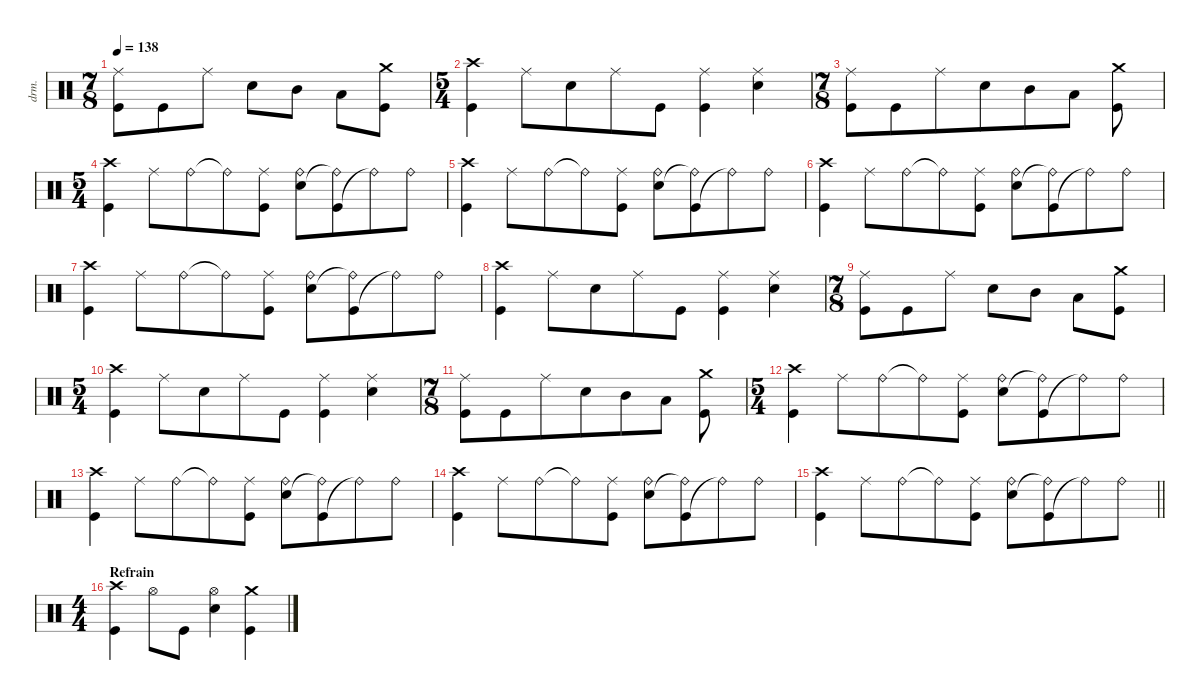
\defaultSystemsLayout 4
\hideDynamics
\bracketExtendMode nobrackets
\track ("Percussions" "drm.") {instrument percussion}
\staff {score}
\articulation defaults
\ts (7 8)
\beaming (8 3 2 2)
\tempo 138
\clef neutral
\ks aminor
("Ride (middle)" "Kick (hit)").8{dy f} "Kick (hit)".8 "Ride (middle)".8 "Snare (hit) 2".8 "Mid Tom (hit)".8 "Low Tom (hit)".8 ("Kick (hit)" "Crash medium (hit)").8 |
\ts (5 4)
\beaming (8 6 4)
("Crash high (hit)" "Kick (hit)").4 "Ride (middle)".8 "Snare (hit) 2".8 "Ride (middle)".8 "Kick (hit)".8 ("Ride (middle)" "Kick (hit)").4 ("Ride (middle)" "Snare (hit) 2").4 |
\ts (7 8)
\beaming (8 6 4)
("Ride (middle)" "Kick (hit)").8 "Kick (hit)".8 "Ride (middle)".8 "Snare (hit) 2".8 "Mid Tom (hit)".8 "Low Tom (hit)".8 ("Kick (hit)" "Crash medium (hit)").8 |
\ts (5 4)
\beaming (8 6 4)
("Crash high (hit)" "Kick (hit)").4 "Ride (middle)".8 "Ride (bell)".8 "Ride (bell)"{t}.8 ("Ride (middle)" "Kick (hit)").8 ("Ride (bell)" "Snare (hit) 2").8 ("Kick (hit)" "Ride (bell)"{t}).8 "Ride (bell)"{t}.8 "Ride (bell)".8 |
("Crash high (hit)" "Kick (hit)").4 "Ride (middle)".8 "Ride (bell)".8 "Ride (bell)"{t}.8 ("Ride (middle)" "Kick (hit)").8 ("Ride (bell)" "Snare (hit) 2").8 ("Kick (hit)" "Ride (bell)"{t}).8 "Ride (bell)"{t}.8 "Ride (bell)".8 |
("Crash high (hit)" "Kick (hit)").4 "Ride (middle)".8 "Ride (bell)".8 "Ride (bell)"{t}.8 ("Ride (middle)" "Kick (hit)").8 ("Ride (bell)" "Snare (hit) 2").8 ("Kick (hit)" "Ride (bell)"{t}).8 "Ride (bell)"{t}.8 "Ride (bell)".8 |
("Crash high (hit)" "Kick (hit)").4 "Ride (middle)".8 "Ride (bell)".8 "Ride (bell)"{t}.8 ("Ride (middle)" "Kick (hit)").8 ("Ride (bell)" "Snare (hit) 2").8 ("Kick (hit)" "Ride (bell)"{t}).8 "Ride (bell)"{t}.8 "Ride (bell)".8 |
("Crash high (hit)" "Kick (hit)").4 "Ride (middle)".8 "Snare (hit) 2".8 "Ride (middle)".8 "Kick (hit)".8 ("Ride (middle)" "Kick (hit)").4 ("Ride (middle)" "Snare (hit) 2").4 |
\ts (7 8)
\beaming (8 3 2 2)
("Ride (middle)" "Kick (hit)").8 "Kick (hit)".8 "Ride (middle)".8 "Snare (hit) 2".8 "Mid Tom (hit)".8 "Low Tom (hit)".8 ("Kick (hit)" "Crash medium (hit)").8 |
\ts (5 4)
\beaming (8 6 4)
("Crash high (hit)" "Kick (hit)").4 "Ride (middle)".8 "Snare (hit) 2".8 "Ride (middle)".8 "Kick (hit)".8 ("Ride (middle)" "Kick (hit)").4 ("Ride (middle)" "Snare (hit) 2").4 |
\ts (7 8)
\beaming (8 6 4)
("Ride (middle)" "Kick (hit)").8 "Kick (hit)".8 "Ride (middle)".8 "Snare (hit) 2".8 "Mid Tom (hit)".8 "Low Tom (hit)".8 ("Kick (hit)" "Crash medium (hit)").8 |
\ts (5 4)
\beaming (8 6 4)
("Crash high (hit)" "Kick (hit)").4 "Ride (middle)".8 "Ride (bell)".8 "Ride (bell)"{t}.8 ("Ride (middle)" "Kick (hit)").8 ("Ride (bell)" "Snare (hit) 2").8 ("Kick (hit)" "Ride (bell)"{t}).8 "Ride (bell)"{t}.8 "Ride (bell)".8 |
("Crash high (hit)" "Kick (hit)").4 "Ride (middle)".8 "Ride (bell)".8 "Ride (bell)"{t}.8 ("Ride (middle)" "Kick (hit)").8 ("Ride (bell)" "Snare (hit) 2").8 ("Kick (hit)" "Ride (bell)"{t}).8 "Ride (bell)"{t}.8 "Ride (bell)".8 |
("Crash high (hit)" "Kick (hit)").4 "Ride (middle)".8 "Ride (bell)".8 "Ride (bell)"{t}.8 ("Ride (middle)" "Kick (hit)").8 ("Ride (bell)" "Snare (hit) 2").8 ("Kick (hit)" "Ride (bell)"{t}).8 "Ride (bell)"{t}.8 "Ride (bell)".8 |
\barLineRight lightlight
("Crash high (hit)" "Kick (hit)").4 "Ride (middle)".8 "Ride (bell)".8 "Ride (bell)"{t}.8 ("Ride (middle)" "Kick (hit)").8 ("Ride (bell)" "Snare (hit) 2").8 ("Kick (hit)" "Ride (bell)"{t}).8 "Ride (bell)"{t}.8 "Ride (bell)".8 |
\ts (4 4)
\beaming (8 2 2 2 2)
\section ("" "Refrain")
("Kick (hit)" "Crash high (hit)").4 "Hi-Hat (open)".8 "Kick (hit)".8 ("Hi-Hat (open)" "Snare (hit) 2").4 ("Crash medium (hit)" "Kick (hit)").4
